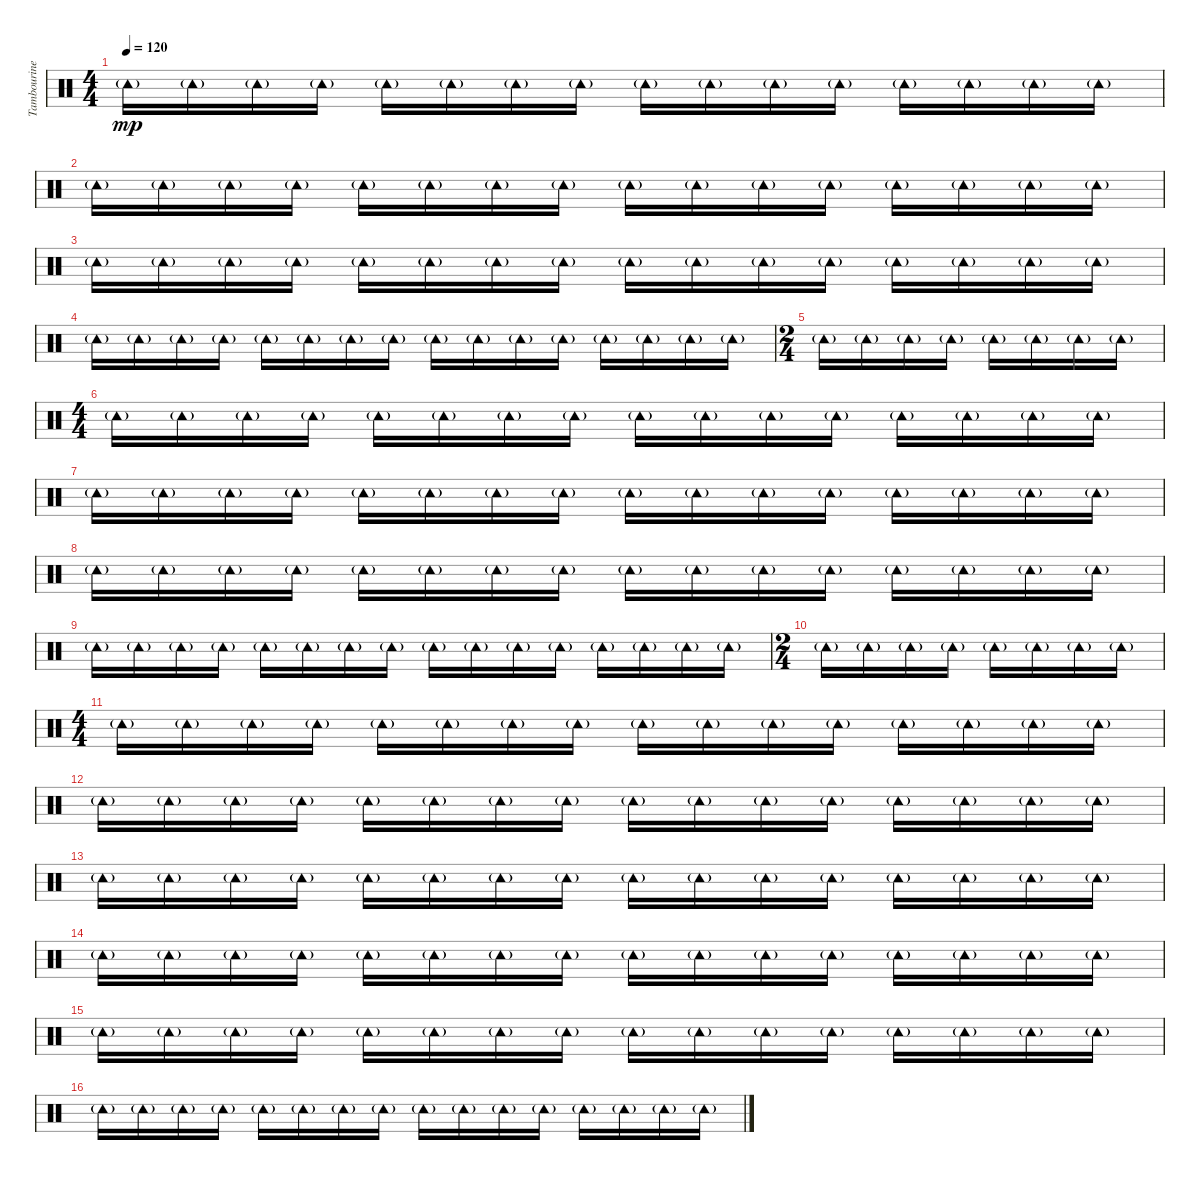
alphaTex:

\track ("Tambourine" "Tambourine") {instrument percussion}
\staff {score}
\articulation defaults
\ts (4 4)
\tempo 120
\clef neutral
\ks c "Tambourine (hit)"{g}.16{dy mp} "Tambourine (hit)"{g}.16 "Tambourine (hit)"{g}.16 "Tambourine (hit)"{g}.16 "Tambourine (hit)"{g}.16 "Tambourine (hit)"{g}.16 "Tambourine (hit)"{g}.16 "Tambourine (hit)"{g}.16 "Tambourine (hit)"{g}.16 "Tambourine (hit)"{g}.16 "Tambourine (hit)"{g}.16 "Tambourine (hit)"{g}.16 "Tambourine (hit)"{g}.16 "Tambourine (hit)"{g}.16 "Tambourine (hit)"{g}.16 "Tambourine (hit)"{g}.16
|
"Tambourine (hit)"{g}.16 "Tambourine (hit)"{g}.16 "Tambourine (hit)"{g}.16 "Tambourine (hit)"{g}.16 "Tambourine (hit)"{g}.16 "Tambourine (hit)"{g}.16 "Tambourine (hit)"{g}.16 "Tambourine (hit)"{g}.16 "Tambourine (hit)"{g}.16 "Tambourine (hit)"{g}.16 "Tambourine (hit)"{g}.16 "Tambourine (hit)"{g}.16 "Tambourine (hit)"{g}.16 "Tambourine (hit)"{g}.16 "Tambourine (hit)"{g}.16 "Tambourine (hit)"{g}.16 |
"Tambourine (hit)"{g}.16 "Tambourine (hit)"{g}.16 "Tambourine (hit)"{g}.16 "Tambourine (hit)"{g}.16 "Tambourine (hit)"{g}.16 "Tambourine (hit)"{g}.16 "Tambourine (hit)"{g}.16 "Tambourine (hit)"{g}.16 "Tambourine (hit)"{g}.16 "Tambourine (hit)"{g}.16 "Tambourine (hit)"{g}.16 "Tambourine (hit)"{g}.16 "Tambourine (hit)"{g}.16 "Tambourine (hit)"{g}.16 "Tambourine (hit)"{g}.16 "Tambourine (hit)"{g}.16 |
"Tambourine (hit)"{g}.16 "Tambourine (hit)"{g}.16 "Tambourine (hit)"{g}.16 "Tambourine (hit)"{g}.16 "Tambourine (hit)"{g}.16 "Tambourine (hit)"{g}.16 "Tambourine (hit)"{g}.16 "Tambourine (hit)"{g}.16 "Tambourine (hit)"{g}.16 "Tambourine (hit)"{g}.16 "Tambourine (hit)"{g}.16 "Tambourine (hit)"{g}.16 "Tambourine (hit)"{g}.16 "Tambourine (hit)"{g}.16 "Tambourine (hit)"{g}.16 "Tambourine (hit)"{g}.16 |
\ts (2 4)
"Tambourine (hit)"{g}.16 "Tambourine (hit)"{g}.16 "Tambourine (hit)"{g}.16 "Tambourine (hit)"{g}.16 "Tambourine (hit)"{g}.16 "Tambourine (hit)"{g}.16 "Tambourine (hit)"{g}.16 "Tambourine (hit)"{g}.16 |
\ts (4 4)
"Tambourine (hit)"{g}.16 "Tambourine (hit)"{g}.16 "Tambourine (hit)"{g}.16 "Tambourine (hit)"{g}.16 "Tambourine (hit)"{g}.16 "Tambourine (hit)"{g}.16 "Tambourine (hit)"{g}.16 "Tambourine (hit)"{g}.16 "Tambourine (hit)"{g}.16 "Tambourine (hit)"{g}.16 "Tambourine (hit)"{g}.16 "Tambourine (hit)"{g}.16 "Tambourine (hit)"{g}.16 "Tambourine (hit)"{g}.16 "Tambourine (hit)"{g}.16 "Tambourine (hit)"{g}.16 |
"Tambourine (hit)"{g}.16 "Tambourine (hit)"{g}.16 "Tambourine (hit)"{g}.16 "Tambourine (hit)"{g}.16 "Tambourine (hit)"{g}.16 "Tambourine (hit)"{g}.16 "Tambourine (hit)"{g}.16 "Tambourine (hit)"{g}.16 "Tambourine (hit)"{g}.16 "Tambourine (hit)"{g}.16 "Tambourine (hit)"{g}.16 "Tambourine (hit)"{g}.16 "Tambourine (hit)"{g}.16 "Tambourine (hit)"{g}.16 "Tambourine (hit)"{g}.16 "Tambourine (hit)"{g}.16 |
"Tambourine (hit)"{g}.16 "Tambourine (hit)"{g}.16 "Tambourine (hit)"{g}.16 "Tambourine (hit)"{g}.16 "Tambourine (hit)"{g}.16 "Tambourine (hit)"{g}.16 "Tambourine (hit)"{g}.16 "Tambourine (hit)"{g}.16 "Tambourine (hit)"{g}.16 "Tambourine (hit)"{g}.16 "Tambourine (hit)"{g}.16 "Tambourine (hit)"{g}.16 "Tambourine (hit)"{g}.16 "Tambourine (hit)"{g}.16 "Tambourine (hit)"{g}.16 "Tambourine (hit)"{g}.16 |
"Tambourine (hit)"{g}.16 "Tambourine (hit)"{g}.16 "Tambourine (hit)"{g}.16 "Tambourine (hit)"{g}.16 "Tambourine (hit)"{g}.16 "Tambourine (hit)"{g}.16 "Tambourine (hit)"{g}.16 "Tambourine (hit)"{g}.16 "Tambourine (hit)"{g}.16 "Tambourine (hit)"{g}.16 "Tambourine (hit)"{g}.16 "Tambourine (hit)"{g}.16 "Tambourine (hit)"{g}.16 "Tambourine (hit)"{g}.16 "Tambourine (hit)"{g}.16 "Tambourine (hit)"{g}.16 |
\ts (2 4)
"Tambourine (hit)"{g}.16 "Tambourine (hit)"{g}.16 "Tambourine (hit)"{g}.16 "Tambourine (hit)"{g}.16 "Tambourine (hit)"{g}.16 "Tambourine (hit)"{g}.16 "Tambourine (hit)"{g}.16 "Tambourine (hit)"{g}.16 |
\ts (4 4)
"Tambourine (hit)"{g}.16 "Tambourine (hit)"{g}.16 "Tambourine (hit)"{g}.16 "Tambourine (hit)"{g}.16 "Tambourine (hit)"{g}.16 "Tambourine (hit)"{g}.16 "Tambourine (hit)"{g}.16 "Tambourine (hit)"{g}.16 "Tambourine (hit)"{g}.16 "Tambourine (hit)"{g}.16 "Tambourine (hit)"{g}.16 "Tambourine (hit)"{g}.16 "Tambourine (hit)"{g}.16 "Tambourine (hit)"{g}.16 "Tambourine (hit)"{g}.16 "Tambourine (hit)"{g}.16 |
"Tambourine (hit)"{g}.16 "Tambourine (hit)"{g}.16 "Tambourine (hit)"{g}.16 "Tambourine (hit)"{g}.16 "Tambourine (hit)"{g}.16 "Tambourine (hit)"{g}.16 "Tambourine (hit)"{g}.16 "Tambourine (hit)"{g}.16 "Tambourine (hit)"{g}.16 "Tambourine (hit)"{g}.16 "Tambourine (hit)"{g}.16 "Tambourine (hit)"{g}.16 "Tambourine (hit)"{g}.16 "Tambourine (hit)"{g}.16 "Tambourine (hit)"{g}.16 "Tambourine (hit)"{g}.16 |
"Tambourine (hit)"{g}.16 "Tambourine (hit)"{g}.16 "Tambourine (hit)"{g}.16 "Tambourine (hit)"{g}.16 "Tambourine (hit)"{g}.16 "Tambourine (hit)"{g}.16 "Tambourine (hit)"{g}.16 "Tambourine (hit)"{g}.16 "Tambourine (hit)"{g}.16 "Tambourine (hit)"{g}.16 "Tambourine (hit)"{g}.16 "Tambourine (hit)"{g}.16 "Tambourine (hit)"{g}.16 "Tambourine (hit)"{g}.16 "Tambourine (hit)"{g}.16 "Tambourine (hit)"{g}.16 |
"Tambourine (hit)"{g}.16 "Tambourine (hit)"{g}.16 "Tambourine (hit)"{g}.16 "Tambourine (hit)"{g}.16 "Tambourine (hit)"{g}.16 "Tambourine (hit)"{g}.16 "Tambourine (hit)"{g}.16 "Tambourine (hit)"{g}.16 "Tambourine (hit)"{g}.16 "Tambourine (hit)"{g}.16 "Tambourine (hit)"{g}.16 "Tambourine (hit)"{g}.16 "Tambourine (hit)"{g}.16 "Tambourine (hit)"{g}.16 "Tambourine (hit)"{g}.16 "Tambourine (hit)"{g}.16 |
"Tambourine (hit)"{g}.16 "Tambourine (hit)"{g}.16 "Tambourine (hit)"{g}.16 "Tambourine (hit)"{g}.16 "Tambourine (hit)"{g}.16 "Tambourine (hit)"{g}.16 "Tambourine (hit)"{g}.16 "Tambourine (hit)"{g}.16 "Tambourine (hit)"{g}.16 "Tambourine (hit)"{g}.16 "Tambourine (hit)"{g}.16 "Tambourine (hit)"{g}.16 "Tambourine (hit)"{g}.16 "Tambourine (hit)"{g}.16 "Tambourine (hit)"{g}.16 "Tambourine (hit)"{g}.16 |
"Tambourine (hit)"{g}.16 "Tambourine (hit)"{g}.16 "Tambourine (hit)"{g}.16 "Tambourine (hit)"{g}.16 "Tambourine (hit)"{g}.16 "Tambourine (hit)"{g}.16 "Tambourine (hit)"{g}.16 "Tambourine (hit)"{g}.16 "Tambourine (hit)"{g}.16 "Tambourine (hit)"{g}.16 "Tambourine (hit)"{g}.16 "Tambourine (hit)"{g}.16 "Tambourine (hit)"{g}.16 "Tambourine (hit)"{g}.16 "Tambourine (hit)"{g}.16 "Tambourine (hit)"{g}.16
